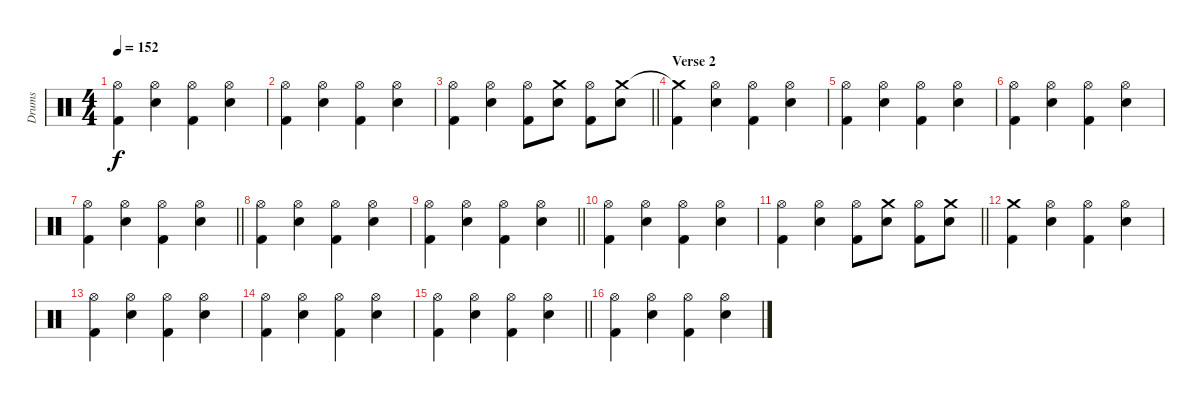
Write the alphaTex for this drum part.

\track ("Drums" "Drums") {instrument percussion}
\staff {score}
\articulation defaults
\ts (4 4)
\tempo 152
\clef neutral
\ks c
("Hi-Hat (open)" "Kick (hit) 2").4{dy f} ("Hi-Hat (open)" "Electric Snare (hit)").4 ("Hi-Hat (open)" "Kick (hit) 2").4 ("Hi-Hat (open)" "Electric Snare (hit)").4 |
("Hi-Hat (open)" "Kick (hit) 2").4 ("Hi-Hat (open)" "Electric Snare (hit)").4 ("Hi-Hat (open)" "Kick (hit) 2").4 ("Hi-Hat (open)" "Electric Snare (hit)").4 |
\barLineRight lightlight
("Hi-Hat (open)" "Kick (hit) 2").4 ("Hi-Hat (open)" "Electric Snare (hit)").4 ("Hi-Hat (open)" "Kick (hit) 2").8 ("Crash medium (hit)" "Electric Snare (hit)").8 ("Hi-Hat (open)" "Kick (hit) 2").8 ("Crash medium (hit)" "Electric Snare (hit)").8 |
\section ("" "Verse 2")
("Crash medium (hit)"{t} "Kick (hit) 2").4 ("Hi-Hat (open)" "Electric Snare (hit)").4 ("Hi-Hat (open)" "Kick (hit) 2").4 ("Hi-Hat (open)" "Electric Snare (hit)").4 |
("Hi-Hat (open)" "Kick (hit) 2").4 ("Hi-Hat (open)" "Electric Snare (hit)").4 ("Hi-Hat (open)" "Kick (hit) 2").4 ("Hi-Hat (open)" "Electric Snare (hit)").4 |
("Hi-Hat (open)" "Kick (hit) 2").4 ("Hi-Hat (open)" "Electric Snare (hit)").4 ("Hi-Hat (open)" "Kick (hit) 2").4 ("Hi-Hat (open)" "Electric Snare (hit)").4 |
\barLineRight lightlight
("Hi-Hat (open)" "Kick (hit) 2").4 ("Hi-Hat (open)" "Electric Snare (hit)").4 ("Hi-Hat (open)" "Kick (hit) 2").4 ("Hi-Hat (open)" "Electric Snare (hit)").4 |
("Hi-Hat (open)" "Kick (hit) 2").4 ("Hi-Hat (open)" "Electric Snare (hit)").4 ("Hi-Hat (open)" "Kick (hit) 2").4 ("Hi-Hat (open)" "Electric Snare (hit)").4 |
\barLineRight lightlight
("Hi-Hat (open)" "Kick (hit) 2").4 ("Hi-Hat (open)" "Electric Snare (hit)").4 ("Hi-Hat (open)" "Kick (hit) 2").4 ("Hi-Hat (open)" "Electric Snare (hit)").4 |
("Hi-Hat (open)" "Kick (hit) 2").4 ("Hi-Hat (open)" "Electric Snare (hit)").4 ("Hi-Hat (open)" "Kick (hit) 2").4 ("Hi-Hat (open)" "Electric Snare (hit)").4 |
\barLineRight lightlight
("Hi-Hat (open)" "Kick (hit) 2").4 ("Hi-Hat (open)" "Electric Snare (hit)").4 ("Hi-Hat (open)" "Kick (hit) 2").8 ("Crash medium (hit)" "Electric Snare (hit)").8 ("Hi-Hat (open)" "Kick (hit) 2").8 ("Crash medium (hit)" "Electric Snare (hit)").8 |
\section ("" "")
("Crash medium (hit)" "Kick (hit) 2").4 ("Hi-Hat (open)" "Electric Snare (hit)").4 ("Hi-Hat (open)" "Kick (hit) 2").4 ("Hi-Hat (open)" "Electric Snare (hit)").4 |
("Hi-Hat (open)" "Kick (hit) 2").4 ("Hi-Hat (open)" "Electric Snare (hit)").4 ("Hi-Hat (open)" "Kick (hit) 2").4 ("Hi-Hat (open)" "Electric Snare (hit)").4 |
("Hi-Hat (open)" "Kick (hit) 2").4 ("Hi-Hat (open)" "Electric Snare (hit)").4 ("Hi-Hat (open)" "Kick (hit) 2").4 ("Hi-Hat (open)" "Electric Snare (hit)").4 |
\barLineRight lightlight
("Hi-Hat (open)" "Kick (hit) 2").4 ("Hi-Hat (open)" "Electric Snare (hit)").4 ("Hi-Hat (open)" "Kick (hit) 2").4 ("Hi-Hat (open)" "Electric Snare (hit)").4 |
("Hi-Hat (open)" "Kick (hit) 2").4 ("Hi-Hat (open)" "Electric Snare (hit)").4 ("Hi-Hat (open)" "Kick (hit) 2").4 ("Hi-Hat (open)" "Electric Snare (hit)").4
